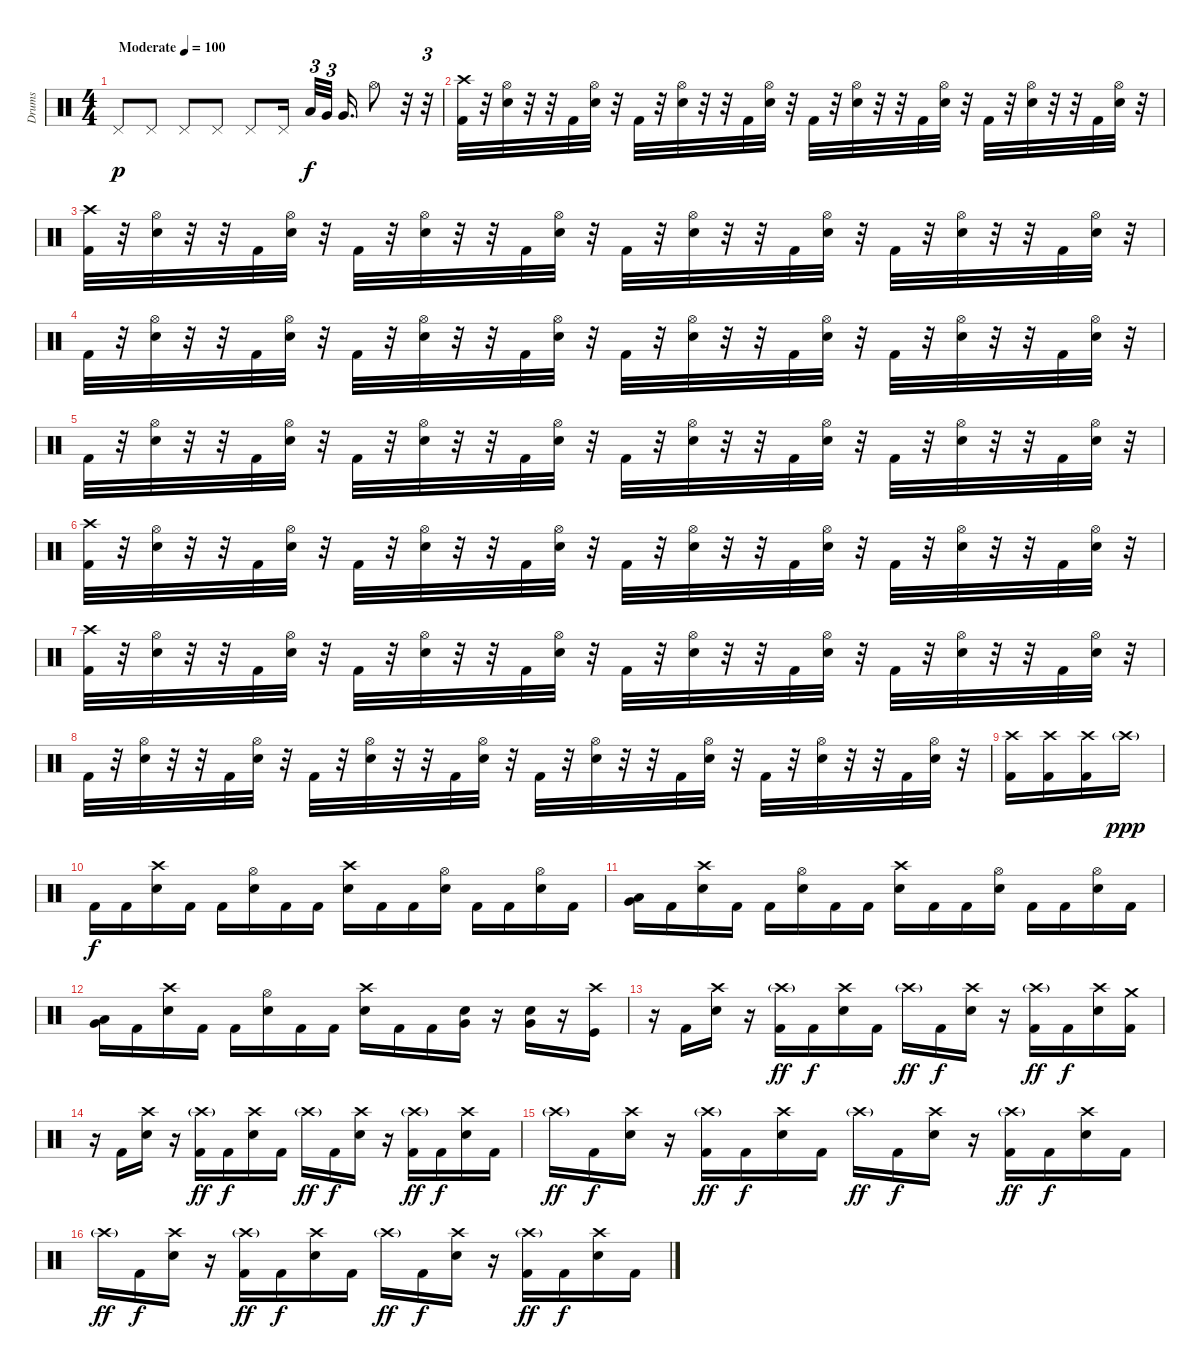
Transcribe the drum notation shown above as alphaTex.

\track ("Drums" "Drums") {instrument percussion}
\staff {score}
\articulation defaults
\ts (4 4)
\tempo (100 "Moderate")
\clef neutral
\ks c "Pedal Hi-Hat (hit)".8{dy p} "Pedal Hi-Hat (hit)".8 "Pedal Hi-Hat (hit)".8 "Pedal Hi-Hat (hit)".8 "Pedal Hi-Hat (hit)".8 "Pedal Hi-Hat (hit)".16{beam splitsecondary} "Low Tom (hit)".32{tu (3 2) dy f} "Very Low Tom (hit)".32{tu (3 2) beam splitsecondary} "Very Low Tom (hit)".16{d} "Hi-Hat (open)".8
r.32 r.32{tu (3 2)} |
("Crash high (hit)" "Kick (hit) 2").32 r.32 ("Hi-Hat (open)" "Snare (hit) 2").32 r.32 r.32 "Kick (hit) 2".32 ("Hi-Hat (open)" "Snare (hit) 2").32 r.32 "Kick (hit) 2".32 r.32 ("Hi-Hat (open)" "Snare (hit) 2").32 r.32 r.32 "Kick (hit) 2".32 ("Hi-Hat (open)" "Snare (hit) 2").32 r.32 "Kick (hit) 2".32 r.32 ("Hi-Hat (open)" "Snare (hit) 2").32 r.32 r.32 "Kick (hit) 2".32 ("Hi-Hat (open)" "Snare (hit) 2").32 r.32 "Kick (hit) 2".32 r.32 ("Hi-Hat (open)" "Snare (hit) 2").32 r.32 r.32 "Kick (hit) 2".32 ("Hi-Hat (open)" "Snare (hit) 2").32 r.32 |
("Crash high (hit)" "Kick (hit) 2").32 r.32 ("Hi-Hat (open)" "Snare (hit) 2").32 r.32 r.32 "Kick (hit) 2".32 ("Hi-Hat (open)" "Snare (hit) 2").32 r.32 "Kick (hit) 2".32 r.32 ("Hi-Hat (open)" "Snare (hit) 2").32 r.32 r.32 "Kick (hit) 2".32 ("Hi-Hat (open)" "Snare (hit) 2").32 r.32 "Kick (hit) 2".32 r.32 ("Hi-Hat (open)" "Snare (hit) 2").32 r.32 r.32 "Kick (hit) 2".32 ("Hi-Hat (open)" "Snare (hit) 2").32 r.32 "Kick (hit) 2".32 r.32 ("Hi-Hat (open)" "Snare (hit) 2").32 r.32 r.32 "Kick (hit) 2".32 ("Hi-Hat (open)" "Snare (hit) 2").32 r.32 |
"Kick (hit) 2".32 r.32 ("Hi-Hat (open)" "Snare (hit) 2").32 r.32 r.32 "Kick (hit) 2".32 ("Hi-Hat (open)" "Snare (hit) 2").32 r.32 "Kick (hit) 2".32 r.32 ("Hi-Hat (open)" "Snare (hit) 2").32 r.32 r.32 "Kick (hit) 2".32 ("Hi-Hat (open)" "Snare (hit) 2").32 r.32 "Kick (hit) 2".32 r.32 ("Hi-Hat (open)" "Snare (hit) 2").32 r.32 r.32 "Kick (hit) 2".32 ("Hi-Hat (open)" "Snare (hit) 2").32 r.32 "Kick (hit) 2".32 r.32 ("Hi-Hat (open)" "Snare (hit) 2").32 r.32 r.32 "Kick (hit) 2".32 ("Hi-Hat (open)" "Snare (hit) 2").32 r.32 |
"Kick (hit) 2".32 r.32 ("Hi-Hat (open)" "Snare (hit) 2").32 r.32 r.32 "Kick (hit) 2".32 ("Hi-Hat (open)" "Snare (hit) 2").32 r.32 "Kick (hit) 2".32 r.32 ("Hi-Hat (open)" "Snare (hit) 2").32 r.32 r.32 "Kick (hit) 2".32 ("Hi-Hat (open)" "Snare (hit) 2").32 r.32 "Kick (hit) 2".32 r.32 ("Hi-Hat (open)" "Snare (hit) 2").32 r.32 r.32 "Kick (hit) 2".32 ("Hi-Hat (open)" "Snare (hit) 2").32 r.32 "Kick (hit) 2".32 r.32 ("Hi-Hat (open)" "Snare (hit) 2").32 r.32 r.32 "Kick (hit) 2".32 ("Hi-Hat (open)" "Snare (hit) 2").32 r.32 |
("Crash high (hit)" "Kick (hit) 2").32 r.32 ("Hi-Hat (open)" "Snare (hit) 2").32 r.32 r.32 "Kick (hit) 2".32 ("Hi-Hat (open)" "Snare (hit) 2").32 r.32 "Kick (hit) 2".32 r.32 ("Hi-Hat (open)" "Snare (hit) 2").32 r.32 r.32 "Kick (hit) 2".32 ("Hi-Hat (open)" "Snare (hit) 2").32 r.32 "Kick (hit) 2".32 r.32 ("Hi-Hat (open)" "Snare (hit) 2").32 r.32 r.32 "Kick (hit) 2".32 ("Hi-Hat (open)" "Snare (hit) 2").32 r.32 "Kick (hit) 2".32 r.32 ("Hi-Hat (open)" "Snare (hit) 2").32 r.32 r.32 "Kick (hit) 2".32 ("Hi-Hat (open)" "Snare (hit) 2").32 r.32 |
("Crash high (hit)" "Kick (hit) 2").32 r.32 ("Hi-Hat (open)" "Snare (hit) 2").32 r.32 r.32 "Kick (hit) 2".32 ("Hi-Hat (open)" "Snare (hit) 2").32 r.32 "Kick (hit) 2".32 r.32 ("Hi-Hat (open)" "Snare (hit) 2").32 r.32 r.32 "Kick (hit) 2".32 ("Hi-Hat (open)" "Snare (hit) 2").32 r.32 "Kick (hit) 2".32 r.32 ("Hi-Hat (open)" "Snare (hit) 2").32 r.32 r.32 "Kick (hit) 2".32 ("Hi-Hat (open)" "Snare (hit) 2").32 r.32 "Kick (hit) 2".32 r.32 ("Hi-Hat (open)" "Snare (hit) 2").32 r.32 r.32 "Kick (hit) 2".32 ("Hi-Hat (open)" "Snare (hit) 2").32 r.32 |
"Kick (hit) 2".32 r.32 ("Hi-Hat (open)" "Snare (hit) 2").32 r.32 r.32 "Kick (hit) 2".32 ("Hi-Hat (open)" "Snare (hit) 2").32 r.32 "Kick (hit) 2".32 r.32 ("Hi-Hat (open)" "Snare (hit) 2").32 r.32 r.32 "Kick (hit) 2".32 ("Hi-Hat (open)" "Snare (hit) 2").32 r.32 "Kick (hit) 2".32 r.32 ("Hi-Hat (open)" "Snare (hit) 2").32 r.32 r.32 "Kick (hit) 2".32 ("Hi-Hat (open)" "Snare (hit) 2").32 r.32 "Kick (hit) 2".32 r.32 ("Hi-Hat (open)" "Snare (hit) 2").32 r.32 r.32 "Kick (hit) 2".32 ("Hi-Hat (open)" "Snare (hit) 2").32 r.32 |
("Crash high (hit)" "Kick (hit) 2").16 ("Crash high (hit)" "Kick (hit) 2").16 ("Crash high (hit)" "Kick (hit) 2").16 "Crash high (hit)"{g}.16{dy ppp} |
"Kick (hit) 2".16{dy f} "Kick (hit) 2".16 ("Crash high (hit)" "Snare (hit) 2").16 "Kick (hit) 2".16 "Kick (hit) 2".16 ("Hi-Hat (open)" "Snare (hit) 2").16 "Kick (hit) 2".16 "Kick (hit) 2".16 ("Crash high (hit)" "Snare (hit) 2").16 "Kick (hit) 2".16 "Kick (hit) 2".16 ("Hi-Hat (open)" "Snare (hit) 2").16 "Kick (hit) 2".16 "Kick (hit) 2".16 ("Hi-Hat (open)" "Snare (hit) 2").16 "Kick (hit) 2".16 |
("Very Low Tom (hit)" "Low Tom (hit)").16 "Kick (hit) 2".16 ("Crash high (hit)" "Snare (hit) 2").16 "Kick (hit) 2".16 "Kick (hit) 2".16 ("Hi-Hat (open)" "Snare (hit) 2").16 "Kick (hit) 2".16 "Kick (hit) 2".16 ("Crash high (hit)" "Snare (hit) 2").16 "Kick (hit) 2".16 "Kick (hit) 2".16 ("Hi-Hat (open)" "Snare (hit) 2").16 "Kick (hit) 2".16 "Kick (hit) 2".16 ("Hi-Hat (open)" "Snare (hit) 2").16 "Kick (hit) 2".16 |
("Very Low Tom (hit)" "Low Tom (hit)").16 "Kick (hit) 2".16 ("Crash high (hit)" "Snare (hit) 2").16 "Kick (hit) 2".16 "Kick (hit) 2".16 ("Hi-Hat (open)" "Snare (hit) 2").16 "Kick (hit) 2".16 "Kick (hit) 2".16 ("Crash high (hit)" "Snare (hit) 2").16 "Kick (hit) 2".16 "Kick (hit) 2".16 ("Very Low Tom (hit)" "Snare (hit) 2").16 r.16 ("Very Low Tom (hit)" "Snare (hit) 2").16 r.16 ("Crash high (hit)" "Kick (hit)").16 |
r.16 "Kick (hit) 2".16 ("Crash high (hit)" "Snare (hit) 2").16 r.16 ("Crash high (hit)"{g} "Kick (hit) 2").16{dy ff} "Kick (hit) 2".16{dy f} ("Crash high (hit)" "Snare (hit) 2").16 "Kick (hit) 2".16 "Crash high (hit)"{g}.16{dy ff} "Kick (hit) 2".16{dy f} ("Crash high (hit)" "Snare (hit) 2").16 r.16 ("Crash high (hit)"{g} "Kick (hit) 2").16{dy ff} "Kick (hit) 2".16{dy f} ("Crash high (hit)" "Snare (hit) 2").16 ("Crash medium (hit)" "Kick (hit) 2").16 |
r.16 "Kick (hit) 2".16 ("Crash high (hit)" "Snare (hit) 2").16 r.16 ("Crash high (hit)"{g} "Kick (hit) 2").16{dy ff} "Kick (hit) 2".16{dy f} ("Crash high (hit)" "Snare (hit) 2").16 "Kick (hit) 2".16 "Crash high (hit)"{g}.16{dy ff} "Kick (hit) 2".16{dy f} ("Crash high (hit)" "Snare (hit) 2").16 r.16 ("Crash high (hit)"{g} "Kick (hit) 2").16{dy ff} "Kick (hit) 2".16{dy f} ("Crash high (hit)" "Snare (hit) 2").16 "Kick (hit) 2".16 |
"Crash high (hit)"{g}.16{dy ff} "Kick (hit) 2".16{dy f} ("Crash high (hit)" "Snare (hit) 2").16 r.16 ("Crash high (hit)"{g} "Kick (hit) 2").16{dy ff} "Kick (hit) 2".16{dy f} ("Crash high (hit)" "Snare (hit) 2").16 "Kick (hit) 2".16 "Crash high (hit)"{g}.16{dy ff} "Kick (hit) 2".16{dy f} ("Crash high (hit)" "Snare (hit) 2").16 r.16 ("Crash high (hit)"{g} "Kick (hit) 2").16{dy ff} "Kick (hit) 2".16{dy f} ("Crash high (hit)" "Snare (hit) 2").16 "Kick (hit) 2".16 |
"Crash high (hit)"{g}.16{dy ff} "Kick (hit) 2".16{dy f} ("Crash high (hit)" "Snare (hit) 2").16 r.16 ("Crash high (hit)"{g} "Kick (hit) 2").16{dy ff} "Kick (hit) 2".16{dy f} ("Crash high (hit)" "Snare (hit) 2").16 "Kick (hit) 2".16 "Crash high (hit)"{g}.16{dy ff} "Kick (hit) 2".16{dy f} ("Crash high (hit)" "Snare (hit) 2").16 r.16 ("Crash high (hit)"{g} "Kick (hit) 2").16{dy ff} "Kick (hit) 2".16{dy f} ("Crash high (hit)" "Snare (hit) 2").16 "Kick (hit) 2".16
